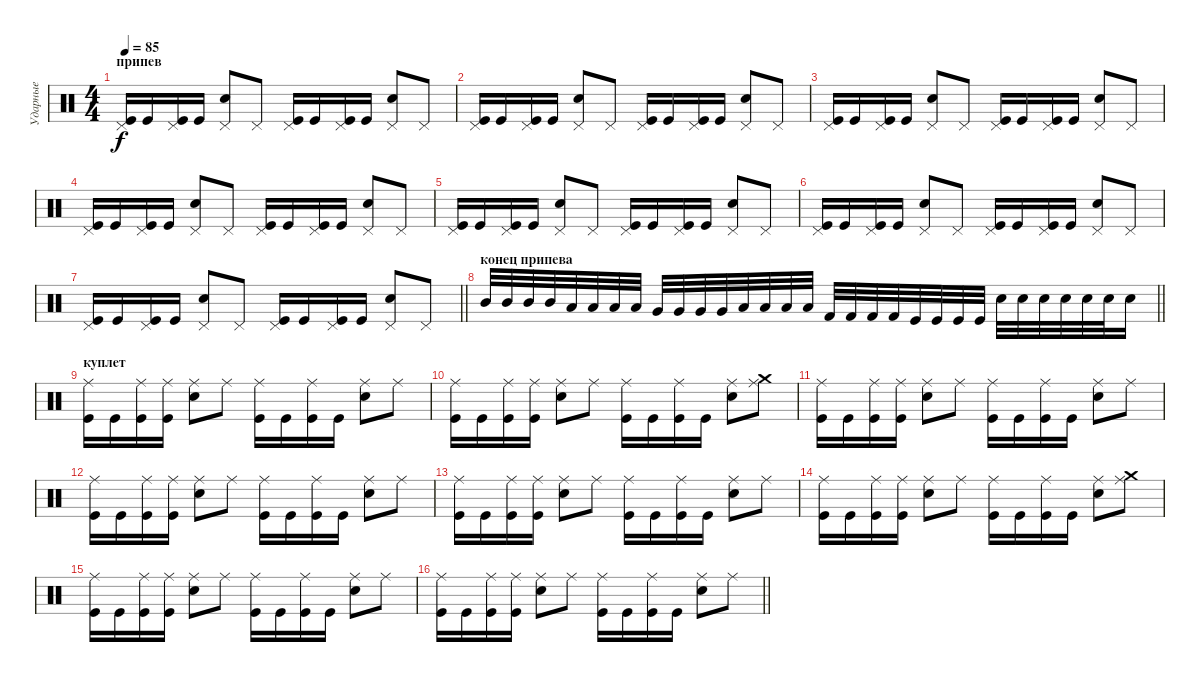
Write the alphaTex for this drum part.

\track ("Ударные" "Ударные") {instrument percussion}
\staff {score}
\articulation defaults
\ts (4 4)
\section ("" "припев")
\tempo 85
\clef neutral
\ks c
("Pedal Hi-Hat (hit)" "Kick (hit)").16{dy f} "Kick (hit)".16 ("Pedal Hi-Hat (hit)" "Kick (hit)").16 "Kick (hit)".16 ("Pedal Hi-Hat (hit)" "Electric Snare (hit)").8 "Pedal Hi-Hat (hit)".8 ("Pedal Hi-Hat (hit)" "Kick (hit)").16 "Kick (hit)".16 ("Pedal Hi-Hat (hit)" "Kick (hit)").16 "Kick (hit)".16 ("Pedal Hi-Hat (hit)" "Electric Snare (hit)").8 "Pedal Hi-Hat (hit)".8 |
("Pedal Hi-Hat (hit)" "Kick (hit)").16 "Kick (hit)".16 ("Pedal Hi-Hat (hit)" "Kick (hit)").16 "Kick (hit)".16 ("Pedal Hi-Hat (hit)" "Electric Snare (hit)").8 "Pedal Hi-Hat (hit)".8 ("Pedal Hi-Hat (hit)" "Kick (hit)").16 "Kick (hit)".16 ("Pedal Hi-Hat (hit)" "Kick (hit)").16 "Kick (hit)".16 ("Pedal Hi-Hat (hit)" "Electric Snare (hit)").8 "Pedal Hi-Hat (hit)".8 |
("Pedal Hi-Hat (hit)" "Kick (hit)").16 "Kick (hit)".16 ("Pedal Hi-Hat (hit)" "Kick (hit)").16 "Kick (hit)".16 ("Pedal Hi-Hat (hit)" "Electric Snare (hit)").8 "Pedal Hi-Hat (hit)".8 ("Pedal Hi-Hat (hit)" "Kick (hit)").16 "Kick (hit)".16 ("Pedal Hi-Hat (hit)" "Kick (hit)").16 "Kick (hit)".16 ("Pedal Hi-Hat (hit)" "Electric Snare (hit)").8 "Pedal Hi-Hat (hit)".8 |
("Pedal Hi-Hat (hit)" "Kick (hit)").16 "Kick (hit)".16 ("Pedal Hi-Hat (hit)" "Kick (hit)").16 "Kick (hit)".16 ("Pedal Hi-Hat (hit)" "Electric Snare (hit)").8 "Pedal Hi-Hat (hit)".8 ("Pedal Hi-Hat (hit)" "Kick (hit)").16 "Kick (hit)".16 ("Pedal Hi-Hat (hit)" "Kick (hit)").16 "Kick (hit)".16 ("Pedal Hi-Hat (hit)" "Electric Snare (hit)").8 "Pedal Hi-Hat (hit)".8 |
("Pedal Hi-Hat (hit)" "Kick (hit)").16 "Kick (hit)".16 ("Pedal Hi-Hat (hit)" "Kick (hit)").16 "Kick (hit)".16 ("Pedal Hi-Hat (hit)" "Electric Snare (hit)").8 "Pedal Hi-Hat (hit)".8 ("Pedal Hi-Hat (hit)" "Kick (hit)").16 "Kick (hit)".16 ("Pedal Hi-Hat (hit)" "Kick (hit)").16 "Kick (hit)".16 ("Pedal Hi-Hat (hit)" "Electric Snare (hit)").8 "Pedal Hi-Hat (hit)".8 |
("Pedal Hi-Hat (hit)" "Kick (hit)").16 "Kick (hit)".16 ("Pedal Hi-Hat (hit)" "Kick (hit)").16 "Kick (hit)".16 ("Pedal Hi-Hat (hit)" "Electric Snare (hit)").8 "Pedal Hi-Hat (hit)".8 ("Pedal Hi-Hat (hit)" "Kick (hit)").16 "Kick (hit)".16 ("Pedal Hi-Hat (hit)" "Kick (hit)").16 "Kick (hit)".16 ("Pedal Hi-Hat (hit)" "Electric Snare (hit)").8 "Pedal Hi-Hat (hit)".8 |
\barLineRight lightlight
("Pedal Hi-Hat (hit)" "Kick (hit)").16 "Kick (hit)".16 ("Pedal Hi-Hat (hit)" "Kick (hit)").16 "Kick (hit)".16 ("Pedal Hi-Hat (hit)" "Electric Snare (hit)").8 "Pedal Hi-Hat (hit)".8 ("Pedal Hi-Hat (hit)" "Kick (hit)").16 "Kick (hit)".16 ("Pedal Hi-Hat (hit)" "Kick (hit)").16 "Kick (hit)".16 ("Pedal Hi-Hat (hit)" "Electric Snare (hit)").8 "Pedal Hi-Hat (hit)".8 |
\section ("" "конец припева")
\barLineRight lightlight "Mid Tom (hit)".32 "Mid Tom (hit)".32 "Mid Tom (hit)".32 "Mid Tom (hit)".32 "Low Tom (hit)".32 "Low Tom (hit)".32 "Low Tom (hit)".32 "Low Tom (hit)".32 "Very Low Tom (hit)".32 "Very Low Tom (hit)".32 "Very Low Tom (hit)".32 "Very Low Tom (hit)".32 "Low Floor Tom (hit)".32 "Low Floor Tom (hit)".32 "Low Floor Tom (hit)".32 "Low Floor Tom (hit)".32 "Kick (hit) 2".32 "Kick (hit) 2".32 "Kick (hit) 2".32 "Kick (hit) 2".32 "Kick (hit)".32 "Kick (hit)".32 "Kick (hit)".32 "Kick (hit)".32 "Electric Snare (hit)".32 "Electric Snare (hit)".32 "Electric Snare (hit)".32 "Electric Snare (hit)".32 "Electric Snare (hit)".32 "Electric Snare (hit)".32 "Electric Snare (hit)".16
|
\section ("" "куплет")
("Ride (middle)" "Kick (hit)").16 "Kick (hit)".16 ("Ride (middle)" "Kick (hit)").16 ("Ride (middle)" "Kick (hit)").16 ("Ride (middle)" "Electric Snare (hit)").8 "Ride (middle)".8 ("Ride (middle)" "Kick (hit)").16 "Kick (hit)".16 ("Ride (middle)" "Kick (hit)").16 "Kick (hit)".16 ("Ride (middle)" "Electric Snare (hit)").8 "Ride (middle)".8 |
("Ride (middle)" "Kick (hit)").16 "Kick (hit)".16 ("Ride (middle)" "Kick (hit)").16 ("Ride (middle)" "Kick (hit)").16 ("Ride (middle)" "Electric Snare (hit)").8 "Ride (middle)".8 ("Ride (middle)" "Kick (hit)").16 "Kick (hit)".16 ("Ride (middle)" "Kick (hit)").16 "Kick (hit)".16 ("Ride (middle)" "Electric Snare (hit)").8 ("Ride (middle)" "Crash medium (hit)").8 |
("Ride (middle)" "Kick (hit)").16 "Kick (hit)".16 ("Ride (middle)" "Kick (hit)").16 ("Ride (middle)" "Kick (hit)").16 ("Ride (middle)" "Electric Snare (hit)").8 "Ride (middle)".8 ("Ride (middle)" "Kick (hit)").16 "Kick (hit)".16 ("Ride (middle)" "Kick (hit)").16 "Kick (hit)".16 ("Ride (middle)" "Electric Snare (hit)").8 "Ride (middle)".8 |
("Ride (middle)" "Kick (hit)").16 "Kick (hit)".16 ("Ride (middle)" "Kick (hit)").16 ("Ride (middle)" "Kick (hit)").16 ("Ride (middle)" "Electric Snare (hit)").8 "Ride (middle)".8 ("Ride (middle)" "Kick (hit)").16 "Kick (hit)".16 ("Ride (middle)" "Kick (hit)").16 "Kick (hit)".16 ("Ride (middle)" "Electric Snare (hit)").8 "Ride (middle)".8 |
("Ride (middle)" "Kick (hit)").16 "Kick (hit)".16 ("Ride (middle)" "Kick (hit)").16 ("Ride (middle)" "Kick (hit)").16 ("Ride (middle)" "Electric Snare (hit)").8 "Ride (middle)".8 ("Ride (middle)" "Kick (hit)").16 "Kick (hit)".16 ("Ride (middle)" "Kick (hit)").16 "Kick (hit)".16 ("Ride (middle)" "Electric Snare (hit)").8 "Ride (middle)".8 |
("Ride (middle)" "Kick (hit)").16 "Kick (hit)".16 ("Ride (middle)" "Kick (hit)").16 ("Ride (middle)" "Kick (hit)").16 ("Ride (middle)" "Electric Snare (hit)").8 "Ride (middle)".8 ("Ride (middle)" "Kick (hit)").16 "Kick (hit)".16 ("Ride (middle)" "Kick (hit)").16 "Kick (hit)".16 ("Ride (middle)" "Electric Snare (hit)").8 ("Ride (middle)" "Crash medium (hit)").8 |
("Ride (middle)" "Kick (hit)").16 "Kick (hit)".16 ("Ride (middle)" "Kick (hit)").16 ("Ride (middle)" "Kick (hit)").16 ("Ride (middle)" "Electric Snare (hit)").8 "Ride (middle)".8 ("Ride (middle)" "Kick (hit)").16 "Kick (hit)".16 ("Ride (middle)" "Kick (hit)").16 "Kick (hit)".16 ("Ride (middle)" "Electric Snare (hit)").8 "Ride (middle)".8 |
\barLineRight lightlight
("Ride (middle)" "Kick (hit)").16 "Kick (hit)".16 ("Ride (middle)" "Kick (hit)").16 ("Ride (middle)" "Kick (hit)").16 ("Ride (middle)" "Electric Snare (hit)").8 "Ride (middle)".8 ("Ride (middle)" "Kick (hit)").16 "Kick (hit)".16 ("Ride (middle)" "Kick (hit)").16 "Kick (hit)".16 ("Ride (middle)" "Electric Snare (hit)").8 "Ride (middle)".8
